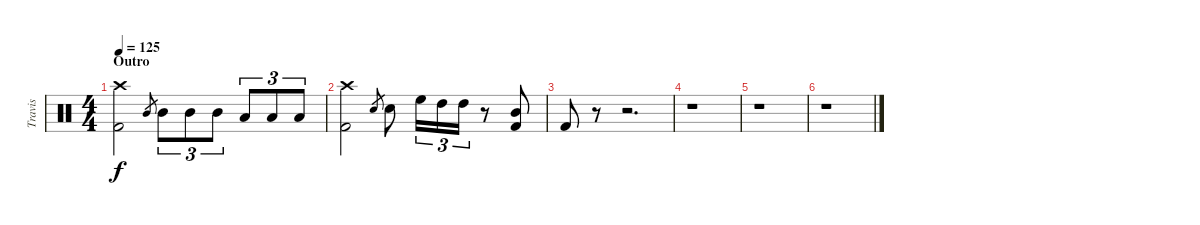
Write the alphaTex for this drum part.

\track ("Travis" "Travis") {instrument percussion}
\staff {score}
\articulation defaults
\ts (4 4)
\section ("" "Outro")
\tempo 125
\clef neutral
\ks c
("Crash high (hit)" "Kick (hit) 2").2{dy f} "Mid Tom (hit)".8{gr} "Mid Tom (hit)".8{tu (3 2)} "Mid Tom (hit)".8{tu (3 2)} "Mid Tom (hit)".8{tu (3 2)} "Low Tom (hit)".8{tu (3 2)} "Low Tom (hit)".8{tu (3 2)} "Low Tom (hit)".8{tu (3 2)} |
("Crash high (hit)" "Kick (hit) 2").2 "Electric Snare (hit)".8{gr} "Electric Snare (hit)".8 "High Floor Tom (hit)".16{tu (3 2)} "High Tom (hit)".16{tu (3 2)} "High Tom (hit)".16{tu (3 2)} r.8 ("Mid Tom (hit)" "Kick (hit) 2").8 |
"Kick (hit) 2".8 r.8 r.2{d} |
r.1 |
r.1 |
r.1
